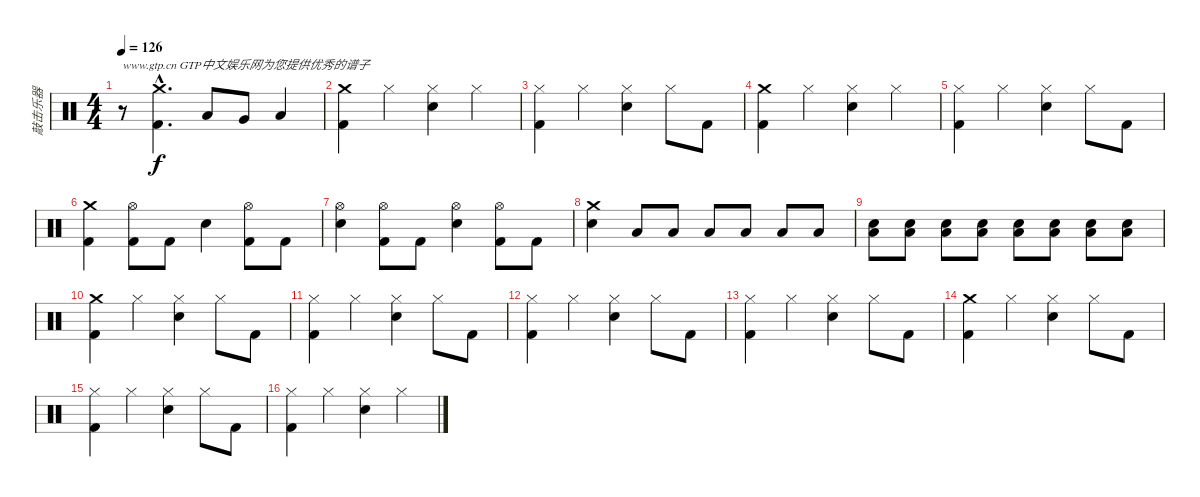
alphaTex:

\track ("敲击乐器" "敲击乐器") {instrument percussion}
\staff {score}
\articulation defaults
\ts (4 4)
\tempo 126
\clef neutral
\ks c
r.8{txt "www.gtp.cn GTP中文娱乐网为您提供优秀的谱子" dy f} ("Crash medium (hit)"{hac} "Kick (hit) 2"{hac}).4{d} "Low Tom (hit)".8 "Very Low Tom (hit)".8 "Low Floor Tom (hit)".4 |
("Crash medium (hit)" "Kick (hit) 2").4 "Hi-Hat (closed)".4 ("Hi-Hat (closed)" "Electric Snare (hit)").4 "Hi-Hat (closed)".4 |
("Hi-Hat (closed)" "Kick (hit) 2").4 "Hi-Hat (closed)".4 ("Hi-Hat (closed)" "Electric Snare (hit)").4 "Hi-Hat (closed)".8 "Kick (hit) 2".8 |
("Crash medium (hit)" "Kick (hit) 2").4 "Hi-Hat (closed)".4 ("Hi-Hat (closed)" "Electric Snare (hit)").4 "Hi-Hat (closed)".4 |
("Hi-Hat (closed)" "Kick (hit) 2").4 "Hi-Hat (closed)".4 ("Hi-Hat (closed)" "Electric Snare (hit)").4 "Hi-Hat (closed)".8 "Kick (hit) 2".8 |
("Crash medium (hit)" "Kick (hit) 2").4 ("Hi-Hat (open)" "Kick (hit) 2").8 "Kick (hit) 2".8 "Electric Snare (hit)".4 ("Hi-Hat (open)" "Kick (hit) 2").8 "Kick (hit) 2".8 |
("Hi-Hat (open)" "Electric Snare (hit)").4 ("Hi-Hat (open)" "Kick (hit) 2").8 "Kick (hit) 2".8 ("Hi-Hat (open)" "Electric Snare (hit)").4 ("Hi-Hat (open)" "Kick (hit) 2").8 "Kick (hit) 2".8 |
("Crash medium (hit)" "Electric Snare (hit)").4 "Low Floor Tom (hit)".8{volume 8} "Low Floor Tom (hit)".8{volume 8} "Low Floor Tom (hit)".8{volume 8} "Low Floor Tom (hit)".8{volume 8} "Low Floor Tom (hit)".8{volume 9} "Low Floor Tom (hit)".8{volume 9} |
("Electric Snare (hit)" "Low Floor Tom (hit)").8{volume 10} ("Electric Snare (hit)" "Low Floor Tom (hit)").8{volume 10} ("Electric Snare (hit)" "Low Floor Tom (hit)").8{volume 11} ("Electric Snare (hit)" "Low Floor Tom (hit)").8{volume 12} ("Electric Snare (hit)" "Low Floor Tom (hit)").8{volume 13} ("Electric Snare (hit)" "Low Floor Tom (hit)").8{volume 14} ("Electric Snare (hit)" "Low Floor Tom (hit)").8{volume 15} ("Electric Snare (hit)" "Low Floor Tom (hit)").8{volume 16} |
("Crash medium (hit)" "Kick (hit) 2").4 "Hi-Hat (closed)".4 ("Hi-Hat (closed)" "Electric Snare (hit)").4 "Hi-Hat (closed)".8 "Kick (hit) 2".8 |
("Hi-Hat (closed)" "Kick (hit) 2").4 "Hi-Hat (closed)".4 ("Hi-Hat (closed)" "Electric Snare (hit)").4 "Hi-Hat (closed)".8 "Kick (hit) 2".8 |
("Hi-Hat (closed)" "Kick (hit) 2").4 "Hi-Hat (closed)".4 ("Hi-Hat (closed)" "Electric Snare (hit)").4 "Hi-Hat (closed)".8 "Kick (hit) 2".8 |
("Hi-Hat (closed)" "Kick (hit) 2").4 "Hi-Hat (closed)".4 ("Hi-Hat (closed)" "Electric Snare (hit)").4 "Hi-Hat (closed)".8 "Kick (hit) 2".8 |
("Crash medium (hit)" "Kick (hit) 2").4 "Hi-Hat (closed)".4 ("Hi-Hat (closed)" "Electric Snare (hit)").4 "Hi-Hat (closed)".8 "Kick (hit) 2".8 |
("Hi-Hat (closed)" "Kick (hit) 2").4 "Hi-Hat (closed)".4 ("Hi-Hat (closed)" "Electric Snare (hit)").4 "Hi-Hat (closed)".8 "Kick (hit) 2".8 |
("Hi-Hat (closed)" "Kick (hit) 2").4 "Hi-Hat (closed)".4 ("Hi-Hat (closed)" "Electric Snare (hit)").4 "Hi-Hat (closed)".4
